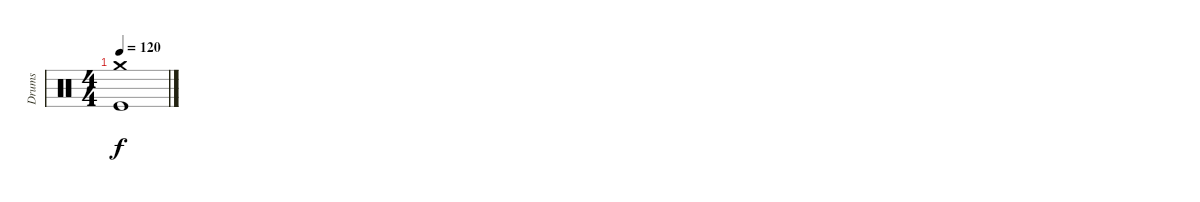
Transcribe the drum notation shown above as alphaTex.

\track ("Drums" "Drums") {instrument percussion}
\staff {score}
\articulation defaults
\ts (4 4)
\tempo 120
\clef neutral
\ks c
("Crash medium (hit)" "Kick (hit)").1{dy f}
